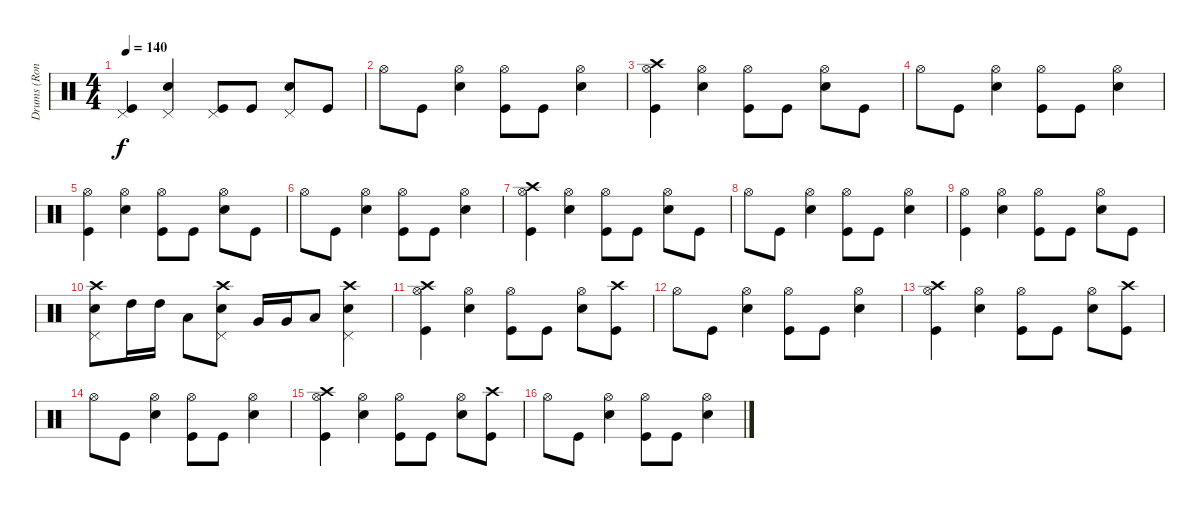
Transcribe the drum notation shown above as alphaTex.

\track ("Drums (Ron Welty)" "Drums (Ron") {instrument percussion}
\staff {score}
\articulation defaults
\ts (4 4)
\tempo 140
\clef neutral
\ks c
("Kick (hit)" "Pedal Hi-Hat (hit)").4{dy f} ("Snare (hit) 2" "Pedal Hi-Hat (hit)").4 ("Kick (hit)" "Pedal Hi-Hat (hit)").8 "Kick (hit)".8 ("Snare (hit) 2" "Pedal Hi-Hat (hit)").8 "Kick (hit)".8 |
"Hi-Hat (open)".8 "Kick (hit)".8 ("Snare (hit) 2" "Hi-Hat (open)").4 ("Kick (hit)" "Hi-Hat (open)").8 "Kick (hit)".8 ("Snare (hit) 2" "Hi-Hat (open)").4 |
("Kick (hit)" "Crash high (hit)" "Hi-Hat (open)").4 ("Snare (hit) 2" "Hi-Hat (open)").4 ("Kick (hit)" "Hi-Hat (open)").8 "Kick (hit)".8 ("Snare (hit) 2" "Hi-Hat (open)").8 "Kick (hit)".8 |
"Hi-Hat (open)".8 "Kick (hit)".8 ("Snare (hit) 2" "Hi-Hat (open)").4 ("Kick (hit)" "Hi-Hat (open)").8 "Kick (hit)".8 ("Snare (hit) 2" "Hi-Hat (open)").4 |
("Kick (hit)" "Hi-Hat (open)").4 ("Snare (hit) 2" "Hi-Hat (open)").4 ("Kick (hit)" "Hi-Hat (open)").8 "Kick (hit)".8 ("Snare (hit) 2" "Hi-Hat (open)").8 "Kick (hit)".8 |
"Hi-Hat (open)".8 "Kick (hit)".8 ("Snare (hit) 2" "Hi-Hat (open)").4 ("Kick (hit)" "Hi-Hat (open)").8 "Kick (hit)".8 ("Snare (hit) 2" "Hi-Hat (open)").4 |
("Kick (hit)" "Crash high (hit)" "Hi-Hat (open)").4 ("Snare (hit) 2" "Hi-Hat (open)").4 ("Kick (hit)" "Hi-Hat (open)").8 "Kick (hit)".8 ("Snare (hit) 2" "Hi-Hat (open)").8 "Kick (hit)".8 |
"Hi-Hat (open)".8 "Kick (hit)".8 ("Snare (hit) 2" "Hi-Hat (open)").4 ("Kick (hit)" "Hi-Hat (open)").8 "Kick (hit)".8 ("Snare (hit) 2" "Hi-Hat (open)").4 |
("Kick (hit)" "Hi-Hat (open)").4 ("Snare (hit) 2" "Hi-Hat (open)").4 ("Kick (hit)" "Hi-Hat (open)").8 "Kick (hit)".8 ("Snare (hit) 2" "Hi-Hat (open)").8 "Kick (hit)".8 |
("Snare (hit) 2" "Crash high (hit)" "Pedal Hi-Hat (hit)").8 "High Tom (hit)".16 "High Tom (hit)".16 "Low Tom (hit)".8 ("Snare (hit) 2" "Crash high (hit)" "Pedal Hi-Hat (hit)").8 "Very Low Tom (hit)".16 "Very Low Tom (hit)".16 "Low Floor Tom (hit)".8 ("Snare (hit) 2" "Crash high (hit)" "Pedal Hi-Hat (hit)").4 |
("Kick (hit)" "Crash high (hit)" "Hi-Hat (open)").4 ("Snare (hit) 2" "Hi-Hat (open)").4 ("Kick (hit)" "Hi-Hat (open)").8 "Kick (hit)".8 ("Snare (hit) 2" "Hi-Hat (open)").8 ("Kick (hit)" "Crash high (hit)").8 |
"Hi-Hat (open)".8 "Kick (hit)".8 ("Snare (hit) 2" "Hi-Hat (open)").4 ("Kick (hit)" "Hi-Hat (open)").8 "Kick (hit)".8 ("Snare (hit) 2" "Hi-Hat (open)").4 |
("Kick (hit)" "Crash high (hit)" "Hi-Hat (open)").4 ("Snare (hit) 2" "Hi-Hat (open)").4 ("Kick (hit)" "Hi-Hat (open)").8 "Kick (hit)".8 ("Snare (hit) 2" "Hi-Hat (open)").8 ("Kick (hit)" "Crash high (hit)").8 |
"Hi-Hat (open)".8 "Kick (hit)".8 ("Snare (hit) 2" "Hi-Hat (open)").4 ("Kick (hit)" "Hi-Hat (open)").8 "Kick (hit)".8 ("Snare (hit) 2" "Hi-Hat (open)").4 |
("Kick (hit)" "Crash high (hit)" "Hi-Hat (open)").4 ("Snare (hit) 2" "Hi-Hat (open)").4 ("Kick (hit)" "Hi-Hat (open)").8 "Kick (hit)".8 ("Snare (hit) 2" "Hi-Hat (open)").8 ("Kick (hit)" "Crash high (hit)").8 |
"Hi-Hat (open)".8 "Kick (hit)".8 ("Snare (hit) 2" "Hi-Hat (open)").4 ("Kick (hit)" "Hi-Hat (open)").8 "Kick (hit)".8 ("Snare (hit) 2" "Hi-Hat (open)").4
